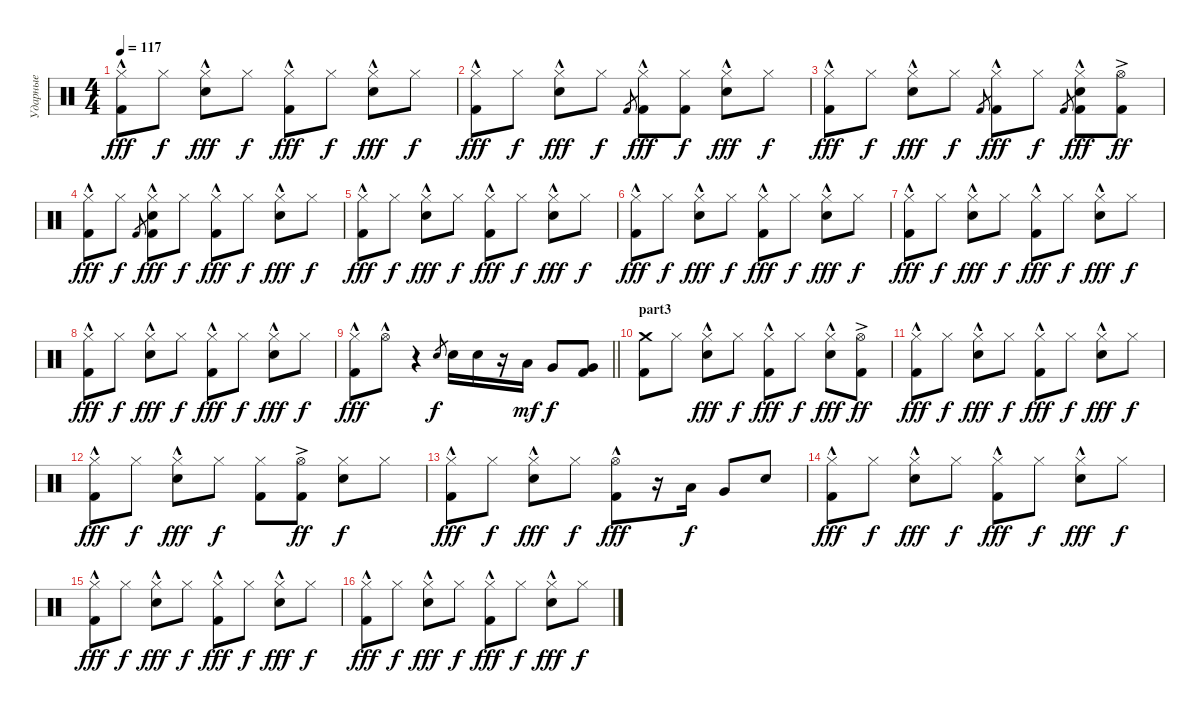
\track ("Ударные" "Ударные") {instrument percussion}
\staff {score}
\articulation defaults
\ts (4 4)
\tempo 117
\clef neutral
\ks c
("Hi-Hat (closed)"{hac} "Kick (hit) 2").8{dy fff} "Hi-Hat (closed)".8{dy f} ("Hi-Hat (closed)"{hac} "Electric Snare (hit)").8{dy fff} "Hi-Hat (closed)".8{dy f} ("Hi-Hat (closed)"{hac} "Kick (hit) 2").8{dy fff} "Hi-Hat (closed)".8{dy f} ("Hi-Hat (closed)"{hac} "Electric Snare (hit)").8{dy fff} "Hi-Hat (closed)".8{dy f} |
("Hi-Hat (closed)"{hac} "Kick (hit) 2").8{dy fff} "Hi-Hat (closed)".8{dy f} ("Hi-Hat (closed)"{hac} "Electric Snare (hit)").8{dy fff} "Hi-Hat (closed)".8{dy f} "Kick (hit) 2".8{gr} ("Hi-Hat (closed)"{hac} "Kick (hit) 2").8{dy fff} ("Hi-Hat (closed)" "Kick (hit) 2").8{dy f} ("Hi-Hat (closed)"{hac} "Electric Snare (hit)").8{dy fff} "Hi-Hat (closed)".8{dy f} |
("Hi-Hat (closed)"{hac} "Kick (hit) 2").8{dy fff} "Hi-Hat (closed)".8{dy f} ("Hi-Hat (closed)"{hac} "Electric Snare (hit)").8{dy fff} "Hi-Hat (closed)".8{dy f} "Kick (hit) 2".8{gr} ("Hi-Hat (closed)"{hac} "Kick (hit) 2").8{dy fff} "Hi-Hat (closed)".8{dy f} "Kick (hit) 2".8{gr} ("Hi-Hat (closed)"{hac} "Electric Snare (hit)" "Kick (hit) 2").8{dy fff} ("Hi-Hat (open)"{ac} "Kick (hit) 2").8{dy ff} |
("Hi-Hat (closed)"{hac} "Kick (hit) 2").8{dy fff} "Hi-Hat (closed)".8{dy f} "Kick (hit) 2".8{gr} ("Hi-Hat (closed)"{hac} "Electric Snare (hit)" "Kick (hit) 2").8{dy fff} "Hi-Hat (closed)".8{dy f} ("Hi-Hat (closed)"{hac} "Kick (hit) 2").8{dy fff} "Hi-Hat (closed)".8{dy f} ("Hi-Hat (closed)"{hac} "Electric Snare (hit)").8{dy fff} "Hi-Hat (closed)".8{dy f} |
("Hi-Hat (closed)"{hac} "Kick (hit) 2").8{dy fff} "Hi-Hat (closed)".8{dy f} ("Hi-Hat (closed)"{hac} "Electric Snare (hit)").8{dy fff} "Hi-Hat (closed)".8{dy f} ("Hi-Hat (closed)"{hac} "Kick (hit) 2").8{dy fff} "Hi-Hat (closed)".8{dy f} ("Hi-Hat (closed)"{hac} "Electric Snare (hit)").8{dy fff} "Hi-Hat (closed)".8{dy f} |
("Hi-Hat (closed)"{hac} "Kick (hit) 2").8{dy fff} "Hi-Hat (closed)".8{dy f} ("Hi-Hat (closed)"{hac} "Electric Snare (hit)").8{dy fff} "Hi-Hat (closed)".8{dy f} ("Hi-Hat (closed)"{hac} "Kick (hit) 2").8{dy fff} "Hi-Hat (closed)".8{dy f} ("Hi-Hat (closed)"{hac} "Electric Snare (hit)").8{dy fff} "Hi-Hat (closed)".8{dy f} |
("Hi-Hat (closed)"{hac} "Kick (hit) 2").8{dy fff} "Hi-Hat (closed)".8{dy f} ("Hi-Hat (closed)"{hac} "Electric Snare (hit)").8{dy fff} "Hi-Hat (closed)".8{dy f} ("Hi-Hat (closed)"{hac} "Kick (hit) 2").8{dy fff} "Hi-Hat (closed)".8{dy f} ("Hi-Hat (closed)"{hac} "Electric Snare (hit)").8{dy fff} "Hi-Hat (closed)".8{dy f} |
("Hi-Hat (closed)"{hac} "Kick (hit) 2").8{dy fff} "Hi-Hat (closed)".8{dy f} ("Hi-Hat (closed)"{hac} "Electric Snare (hit)").8{dy fff} "Hi-Hat (closed)".8{dy f} ("Hi-Hat (closed)"{hac} "Kick (hit) 2").8{dy fff} "Hi-Hat (closed)".8{dy f} ("Hi-Hat (closed)"{hac} "Electric Snare (hit)").8{dy fff} "Hi-Hat (closed)".8{dy f} |
\barLineRight lightlight
("Hi-Hat (closed)"{hac} "Kick (hit) 2").8{dy fff} "Hi-Hat (open)"{hac}.8 r.4 "Electric Snare (hit)".8{gr dy f} "Electric Snare (hit)".16 "Electric Snare (hit)".16 r.16 "Low Tom (hit)".16{dy mf} "Very Low Tom (hit)".8{dy f} ("Very Low Tom (hit)" "Kick (hit) 2").8 |
\section ("" "part3")
("Crash medium (hit)" "Kick (hit) 2").8 "Hi-Hat (closed)".8 ("Hi-Hat (closed)"{hac} "Electric Snare (hit)").8{dy fff} "Hi-Hat (closed)".8{dy f} ("Hi-Hat (closed)"{hac} "Kick (hit) 2").8{dy fff} "Hi-Hat (closed)".8{dy f} ("Hi-Hat (closed)"{hac} "Electric Snare (hit)").8{dy fff} ("Hi-Hat (open)"{ac} "Kick (hit) 2").8{dy ff} |
("Hi-Hat (closed)"{hac} "Kick (hit) 2").8{dy fff} "Hi-Hat (closed)".8{dy f} ("Hi-Hat (closed)"{hac} "Electric Snare (hit)").8{dy fff} "Hi-Hat (closed)".8{dy f} ("Hi-Hat (closed)"{hac} "Kick (hit) 2").8{dy fff} "Hi-Hat (closed)".8{dy f} ("Hi-Hat (closed)"{hac} "Electric Snare (hit)").8{dy fff} "Hi-Hat (closed)".8{dy f} |
("Hi-Hat (closed)"{hac} "Kick (hit) 2").8{dy fff} "Hi-Hat (closed)".8{dy f} ("Hi-Hat (closed)"{hac} "Electric Snare (hit)").8{dy fff} "Hi-Hat (closed)".8{dy f} ("Hi-Hat (closed)" "Kick (hit) 2").8 ("Hi-Hat (open)"{ac} "Kick (hit) 2").8{dy ff} ("Hi-Hat (closed)" "Electric Snare (hit)").8{dy f} "Hi-Hat (closed)".8 |
("Hi-Hat (closed)"{hac} "Kick (hit) 2").8{dy fff} "Hi-Hat (closed)".8{dy f} ("Hi-Hat (closed)"{hac} "Electric Snare (hit)").8{dy fff} "Hi-Hat (closed)".8{dy f} ("Hi-Hat (open)"{hac} "Kick (hit) 2").8{dy fff} r.16 "Low Tom (hit)".16{dy f} "Very Low Tom (hit)".8 "Electric Snare (hit)".8 |
("Hi-Hat (closed)"{hac} "Kick (hit) 2").8{dy fff} "Hi-Hat (closed)".8{dy f} ("Hi-Hat (closed)"{hac} "Electric Snare (hit)").8{dy fff} "Hi-Hat (closed)".8{dy f} ("Hi-Hat (closed)"{hac} "Kick (hit) 2").8{dy fff} "Hi-Hat (closed)".8{dy f} ("Hi-Hat (closed)"{hac} "Electric Snare (hit)").8{dy fff} "Hi-Hat (closed)".8{dy f} |
("Hi-Hat (closed)"{hac} "Kick (hit) 2").8{dy fff} "Hi-Hat (closed)".8{dy f} ("Hi-Hat (closed)"{hac} "Electric Snare (hit)").8{dy fff} "Hi-Hat (closed)".8{dy f} ("Hi-Hat (closed)"{hac} "Kick (hit) 2").8{dy fff} "Hi-Hat (closed)".8{dy f} ("Hi-Hat (closed)"{hac} "Electric Snare (hit)").8{dy fff} "Hi-Hat (closed)".8{dy f} |
("Hi-Hat (closed)"{hac} "Kick (hit) 2").8{dy fff} "Hi-Hat (closed)".8{dy f} ("Hi-Hat (closed)"{hac} "Electric Snare (hit)").8{dy fff} "Hi-Hat (closed)".8{dy f} ("Hi-Hat (closed)"{hac} "Kick (hit) 2").8{dy fff} "Hi-Hat (closed)".8{dy f} ("Hi-Hat (closed)"{hac} "Electric Snare (hit)").8{dy fff} "Hi-Hat (closed)".8{dy f}
